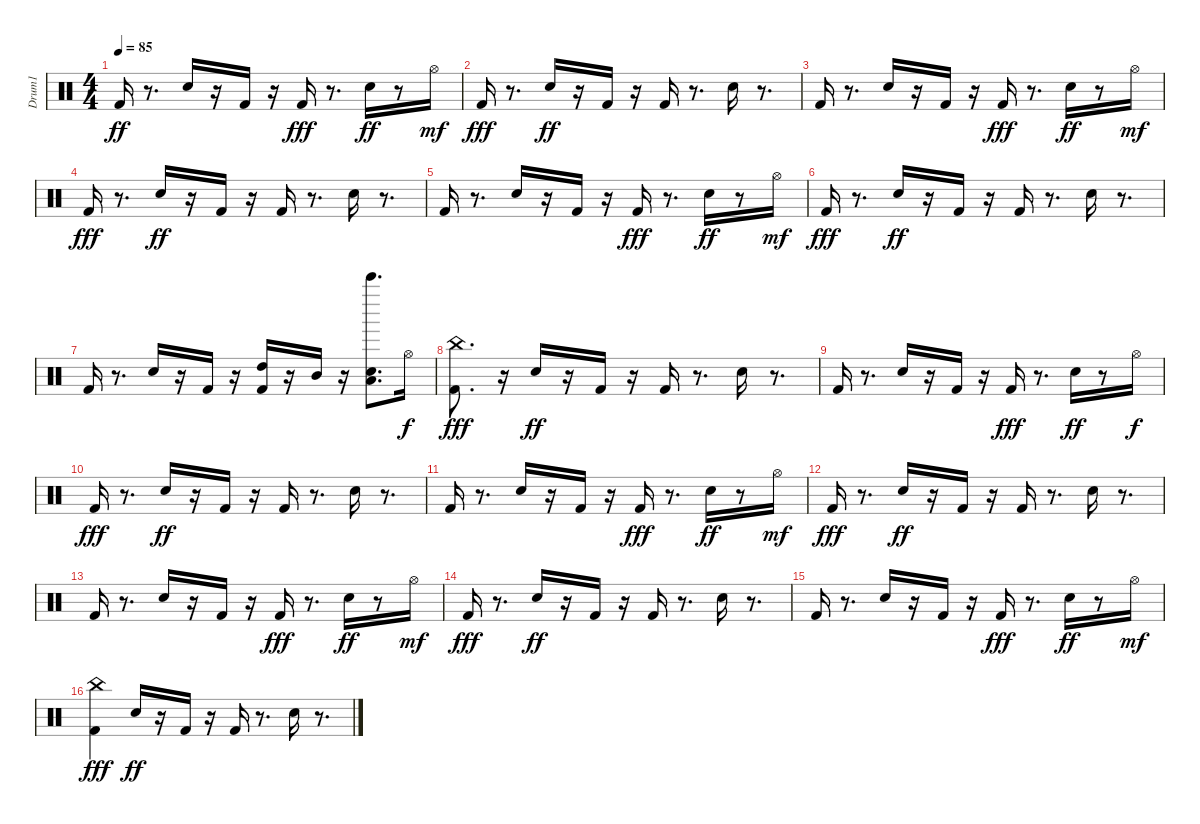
\track ("Drum1" "Drum1") {instrument percussion}
\staff {score}
\articulation defaults
\ts (4 4)
\tempo 85
\clef neutral
\ks c "Kick (hit) 2".16{dy ff}
r.8{d} "Hand Clap (hit)".16 r.16 "Kick (hit) 2".16 r.16 "Kick (hit) 2".16{dy fff} r.8{d} "Hand Clap (hit)".16{dy ff} r.8 "Hi-Hat (open)".16{dy mf} |
"Kick (hit) 2".16{dy fff} r.8{d} "Hand Clap (hit)".16{dy ff} r.16 "Kick (hit) 2".16 r.16 "Kick (hit) 2".16 r.8{d} "Hand Clap (hit)".16 r.8{d} |
"Kick (hit) 2".16 r.8{d} "Hand Clap (hit)".16 r.16 "Kick (hit) 2".16 r.16 "Kick (hit) 2".16{dy fff} r.8{d} "Hand Clap (hit)".16{dy ff} r.8 "Hi-Hat (open)".16{dy mf} |
"Kick (hit) 2".16{dy fff} r.8{d} "Hand Clap (hit)".16{dy ff} r.16 "Kick (hit) 2".16 r.16 "Kick (hit) 2".16 r.8{d} "Hand Clap (hit)".16 r.8{d} |
"Kick (hit) 2".16 r.8{d} "Hand Clap (hit)".16 r.16 "Kick (hit) 2".16 r.16 "Kick (hit) 2".16{dy fff} r.8{d} "Hand Clap (hit)".16{dy ff} r.8 "Hi-Hat (open)".16{dy mf} |
"Kick (hit) 2".16{dy fff} r.8{d} "Hand Clap (hit)".16{dy ff} r.16 "Kick (hit) 2".16 r.16 "Kick (hit) 2".16 r.8{d} "Hand Clap (hit)".16 r.8{d} |
"Kick (hit) 2".16 r.8{d} "Hand Clap (hit)".16 r.16 "Kick (hit) 2".16 r.16 ("Kick (hit) 2" "High Tom (hit)").16 r.16 "Mid Tom (hit)".16 r.16 ("Hand Clap (hit)" "Low Tom (hit)" "Bell Tree (hit)").8{d} "Hi-Hat (open)".16{dy f} |
("Kick (hit) 2" "China (hit)").8{d dy fff} r.16 "Hand Clap (hit)".16{dy ff} r.16 "Kick (hit) 2".16 r.16 "Kick (hit) 2".16 r.8{d} "Hand Clap (hit)".16 r.8{d} |
"Kick (hit) 2".16 r.8{d} "Hand Clap (hit)".16 r.16 "Kick (hit) 2".16 r.16 "Kick (hit) 2".16{dy fff} r.8{d} "Hand Clap (hit)".16{dy ff} r.8 "Hi-Hat (open)".16{dy f} |
"Kick (hit) 2".16{dy fff} r.8{d} "Hand Clap (hit)".16{dy ff} r.16 "Kick (hit) 2".16 r.16 "Kick (hit) 2".16 r.8{d} "Hand Clap (hit)".16 r.8{d} |
"Kick (hit) 2".16 r.8{d} "Hand Clap (hit)".16 r.16 "Kick (hit) 2".16 r.16 "Kick (hit) 2".16{dy fff} r.8{d} "Hand Clap (hit)".16{dy ff} r.8 "Hi-Hat (open)".16{dy mf} |
"Kick (hit) 2".16{dy fff} r.8{d} "Hand Clap (hit)".16{dy ff} r.16 "Kick (hit) 2".16 r.16 "Kick (hit) 2".16 r.8{d} "Hand Clap (hit)".16 r.8{d} |
"Kick (hit) 2".16 r.8{d} "Hand Clap (hit)".16 r.16 "Kick (hit) 2".16 r.16 "Kick (hit) 2".16{dy fff} r.8{d} "Hand Clap (hit)".16{dy ff} r.8 "Hi-Hat (open)".16{dy mf} |
"Kick (hit) 2".16{dy fff} r.8{d} "Hand Clap (hit)".16{dy ff} r.16 "Kick (hit) 2".16 r.16 "Kick (hit) 2".16 r.8{d} "Hand Clap (hit)".16 r.8{d} |
"Kick (hit) 2".16 r.8{d} "Hand Clap (hit)".16 r.16 "Kick (hit) 2".16 r.16 "Kick (hit) 2".16{dy fff} r.8{d} "Hand Clap (hit)".16{dy ff} r.8 "Hi-Hat (open)".16{dy mf} |
("Kick (hit) 2" "China (hit)").4{dy fff} "Hand Clap (hit)".16{dy ff} r.16 "Kick (hit) 2".16 r.16 "Kick (hit) 2".16 r.8{d} "Hand Clap (hit)".16 r.8{d}
